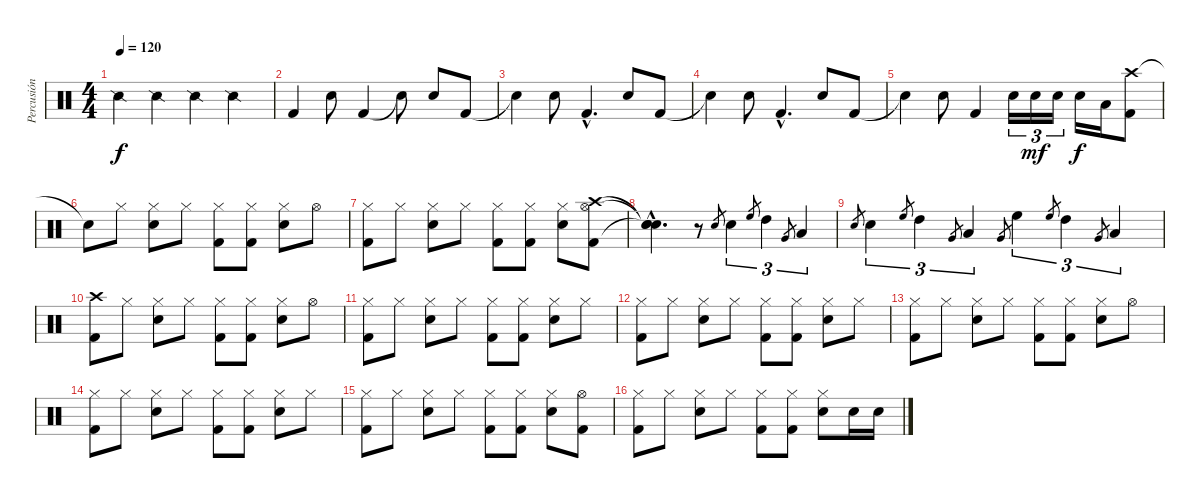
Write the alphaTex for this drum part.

\track ("Percusión" "Percusión") {instrument percussion}
\staff {score}
\articulation defaults
\ts (4 4)
\tempo 120
\clef neutral
\ks c "Snare (side stick) 2".4{dy f} "Snare (side stick) 2".4 "Snare (side stick) 2".4 "Snare (side stick) 2".4
|
"Kick (hit) 2".4 "Electric Snare (hit)".8 "Kick (hit) 2".4 "Snare (hit)"{t}.8 "Electric Snare (hit)".8 "Kick (hit) 2".8 |
"Snare (hit)"{t}.4 "Electric Snare (hit)".8 "Kick (hit) 2"{hac}.4{d} "Electric Snare (hit)".8 "Kick (hit) 2".8 |
"Snare (hit)"{t}.4 "Electric Snare (hit)".8 "Kick (hit) 2"{hac}.4{d} "Electric Snare (hit)".8 "Kick (hit) 2".8 |
"Snare (hit)"{t}.4 "Electric Snare (hit)".8 "Kick (hit) 2".4 "Electric Snare (hit)".16{tu (3 2)} "Electric Snare (hit)".16{tu (3 2) dy mf} "Electric Snare (hit)".16{tu (3 2)} "Electric Snare (hit)".16{dy f} "Low Tom (hit)".16 ("Crash high (hit)" "Kick (hit) 2").8 |
"Snare (hit)"{t}.8 "Hi-Hat (closed)".8 ("Hi-Hat (closed)" "Electric Snare (hit)").8 "Hi-Hat (closed)".8 ("Hi-Hat (closed)" "Kick (hit) 2").8 ("Hi-Hat (closed)" "Kick (hit) 2").8 ("Hi-Hat (closed)" "Electric Snare (hit)").8 "Hi-Hat (open)".8 |
("Hi-Hat (closed)" "Kick (hit) 2").8 "Hi-Hat (closed)".8 ("Hi-Hat (closed)" "Electric Snare (hit)").8 "Hi-Hat (closed)".8 ("Hi-Hat (closed)" "Kick (hit) 2").8 ("Hi-Hat (closed)" "Kick (hit) 2").8 ("Hi-Hat (closed)" "Electric Snare (hit)").8 ("Crash high (hit)" "Hi-Hat (open)" "Kick (hit) 2").8 |
("Snare (hit)"{hac t} "Snare (hit)"{hac t} "Snare (hit)"{hac t}).4{d} r.8 "Snare (hit) 2".8{gr} "Snare (hit) 2".4{tu (3 2)} "High Floor Tom (hit)".8{gr} "High Tom (hit)".4{tu (3 2)} "Very Low Tom (hit)".8{gr} "Low Tom (hit)".4{tu (3 2)} |
"Snare (hit) 2".8{gr} "Snare (hit) 2".4{tu (3 2)} "High Floor Tom (hit)".8{gr} "High Tom (hit)".4{tu (3 2)} "Very Low Tom (hit)".8{gr} "Low Tom (hit)".4{tu (3 2)} "Very Low Tom (hit)".8{gr} "High Floor Tom (hit)".4{tu (3 2)} "High Floor Tom (hit)".8{gr} "High Tom (hit)".4{tu (3 2)} "Very Low Tom (hit)".8{gr} "Low Tom (hit)".4{tu (3 2)} |
("Crash high (hit)" "Kick (hit) 2").8 "Hi-Hat (closed)".8 ("Hi-Hat (closed)" "Electric Snare (hit)").8 "Hi-Hat (closed)".8 ("Hi-Hat (closed)" "Kick (hit) 2").8 ("Hi-Hat (closed)" "Kick (hit) 2").8 ("Hi-Hat (closed)" "Electric Snare (hit)").8 "Hi-Hat (open)".8 |
("Hi-Hat (closed)" "Kick (hit) 2").8 "Hi-Hat (closed)".8 ("Hi-Hat (closed)" "Electric Snare (hit)").8 "Hi-Hat (closed)".8 ("Hi-Hat (closed)" "Kick (hit) 2").8 ("Hi-Hat (closed)" "Kick (hit) 2").8 ("Hi-Hat (closed)" "Electric Snare (hit)").8 "Hi-Hat (closed)".8 |
("Hi-Hat (closed)" "Kick (hit) 2").8 "Hi-Hat (closed)".8 ("Hi-Hat (closed)" "Electric Snare (hit)").8 "Hi-Hat (closed)".8 ("Hi-Hat (closed)" "Kick (hit) 2").8 ("Hi-Hat (closed)" "Kick (hit) 2").8 ("Hi-Hat (closed)" "Electric Snare (hit)").8 "Hi-Hat (closed)".8 |
("Hi-Hat (closed)" "Kick (hit) 2").8 "Hi-Hat (closed)".8 ("Hi-Hat (closed)" "Electric Snare (hit)").8 "Hi-Hat (closed)".8 ("Hi-Hat (closed)" "Kick (hit) 2").8 ("Hi-Hat (closed)" "Kick (hit) 2").8 ("Hi-Hat (closed)" "Electric Snare (hit)").8 "Hi-Hat (open)".8 |
("Hi-Hat (closed)" "Kick (hit) 2").8 "Hi-Hat (closed)".8 ("Hi-Hat (closed)" "Electric Snare (hit)").8 "Hi-Hat (closed)".8 ("Hi-Hat (closed)" "Kick (hit) 2").8 ("Hi-Hat (closed)" "Kick (hit) 2").8 ("Hi-Hat (closed)" "Electric Snare (hit)").8 "Hi-Hat (closed)".8 |
("Hi-Hat (closed)" "Kick (hit) 2").8 "Hi-Hat (closed)".8 ("Hi-Hat (closed)" "Electric Snare (hit)").8 "Hi-Hat (closed)".8 ("Hi-Hat (closed)" "Kick (hit) 2").8 ("Hi-Hat (closed)" "Kick (hit) 2").8 ("Hi-Hat (closed)" "Electric Snare (hit)").8 ("Hi-Hat (open)" "Kick (hit) 2").8 |
("Hi-Hat (closed)" "Kick (hit) 2").8 "Hi-Hat (closed)".8 ("Hi-Hat (closed)" "Electric Snare (hit)").8 "Hi-Hat (closed)".8 ("Hi-Hat (closed)" "Kick (hit) 2").8 ("Hi-Hat (closed)" "Kick (hit) 2").8 ("Hi-Hat (closed)" "Electric Snare (hit)").8 "Electric Snare (hit)".16 "Electric Snare (hit)".16
